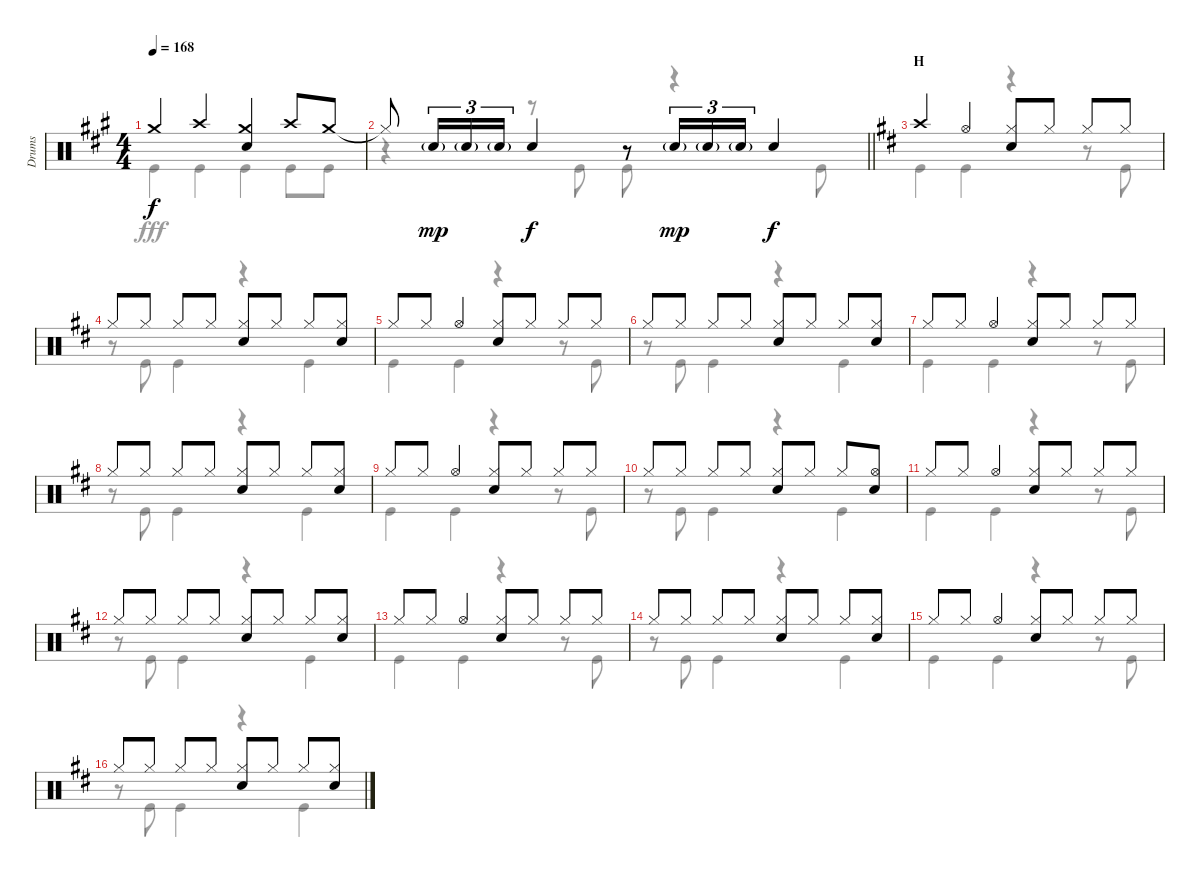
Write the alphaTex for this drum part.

\track ("Drums" "Drums") {instrument percussion}
\staff {score}
\articulation defaults
\voice
\ts (4 4)
\tempo 168
\clef neutral
\ks a "Crash medium (hit)".4{dy f} "Crash high (hit)".4
("Crash medium (hit)" "Snare (hit) 2").4 "Crash high (hit)".8 "Crash medium (hit)".8 |
\barLineRight lightlight "Hi-Hat (closed)"{t}.8 "Snare (hit) 2"{g}.16{tu (3 2) dy mp} "Snare (hit) 2"{g}.16{tu (3 2)} "Snare (hit) 2"{g}.16{tu (3 2)} "Snare (hit) 2".4{dy f}
r.8 "Snare (hit) 2"{g}.16{tu (3 2) dy mp} "Snare (hit) 2"{g}.16{tu (3 2)} "Snare (hit) 2"{g}.16{tu (3 2)} "Snare (hit) 2".4{dy f} |
\section ("" "H")
\ks d "Crash high (hit)".4 "Hi-Hat (open)".4
("Hi-Hat (closed)" "Snare (hit) 2").8 "Hi-Hat (closed)".8 "Hi-Hat (closed)".8 "Hi-Hat (closed)".8 |
"Hi-Hat (closed)".8 "Hi-Hat (closed)".8 "Hi-Hat (closed)".8 "Hi-Hat (closed)".8 ("Hi-Hat (closed)" "Snare (hit) 2").8 "Hi-Hat (closed)".8 "Hi-Hat (closed)".8 ("Hi-Hat (closed)" "Snare (hit) 2").8 |
"Hi-Hat (closed)".8 "Hi-Hat (closed)".8 "Hi-Hat (open)".4 ("Hi-Hat (closed)" "Snare (hit) 2").8 "Hi-Hat (closed)".8 "Hi-Hat (closed)".8 "Hi-Hat (closed)".8 |
"Hi-Hat (closed)".8 "Hi-Hat (closed)".8 "Hi-Hat (closed)".8 "Hi-Hat (closed)".8 ("Hi-Hat (closed)" "Snare (hit) 2").8 "Hi-Hat (closed)".8 "Hi-Hat (closed)".8 ("Hi-Hat (closed)" "Snare (hit) 2").8 |
"Hi-Hat (closed)".8 "Hi-Hat (closed)".8 "Hi-Hat (open)".4 ("Hi-Hat (closed)" "Snare (hit) 2").8 "Hi-Hat (closed)".8 "Hi-Hat (closed)".8 "Hi-Hat (closed)".8 |
"Hi-Hat (closed)".8 "Hi-Hat (closed)".8 "Hi-Hat (closed)".8 "Hi-Hat (closed)".8 ("Hi-Hat (closed)" "Snare (hit) 2").8 "Hi-Hat (closed)".8 "Hi-Hat (closed)".8 ("Hi-Hat (closed)" "Snare (hit) 2").8 |
"Hi-Hat (closed)".8 "Hi-Hat (closed)".8 "Hi-Hat (open)".4 ("Hi-Hat (closed)" "Snare (hit) 2").8 "Hi-Hat (closed)".8 "Hi-Hat (closed)".8 "Hi-Hat (closed)".8 |
"Hi-Hat (closed)".8 "Hi-Hat (closed)".8 "Hi-Hat (closed)".8 "Hi-Hat (closed)".8 ("Hi-Hat (closed)" "Snare (hit) 2").8 "Hi-Hat (closed)".8 "Hi-Hat (closed)".8 ("Hi-Hat (open)" "Snare (hit) 2").8 |
"Hi-Hat (closed)".8 "Hi-Hat (closed)".8 "Hi-Hat (open)".4 ("Hi-Hat (closed)" "Snare (hit) 2").8 "Hi-Hat (closed)".8 "Hi-Hat (closed)".8 "Hi-Hat (closed)".8 |
"Hi-Hat (closed)".8 "Hi-Hat (closed)".8 "Hi-Hat (closed)".8 "Hi-Hat (closed)".8 ("Hi-Hat (closed)" "Snare (hit) 2").8 "Hi-Hat (closed)".8 "Hi-Hat (closed)".8 ("Hi-Hat (closed)" "Snare (hit) 2").8 |
"Hi-Hat (closed)".8 "Hi-Hat (closed)".8 "Hi-Hat (open)".4 ("Hi-Hat (closed)" "Snare (hit) 2").8 "Hi-Hat (closed)".8 "Hi-Hat (closed)".8 "Hi-Hat (closed)".8 |
"Hi-Hat (closed)".8 "Hi-Hat (closed)".8 "Hi-Hat (closed)".8 "Hi-Hat (closed)".8 ("Hi-Hat (closed)" "Snare (hit) 2").8 "Hi-Hat (closed)".8 "Hi-Hat (closed)".8 ("Hi-Hat (closed)" "Snare (hit) 2").8 |
"Hi-Hat (closed)".8 "Hi-Hat (closed)".8 "Hi-Hat (open)".4 ("Hi-Hat (closed)" "Snare (hit) 2").8 "Hi-Hat (closed)".8 "Hi-Hat (closed)".8 "Hi-Hat (closed)".8 |
"Hi-Hat (closed)".8 "Hi-Hat (closed)".8 "Hi-Hat (closed)".8 "Hi-Hat (closed)".8 ("Hi-Hat (closed)" "Snare (hit) 2").8 "Hi-Hat (closed)".8 "Hi-Hat (closed)".8 ("Hi-Hat (closed)" "Snare (hit) 2").8
\voice
\clef neutral
\ottava regular
\simile none
\ks a "Kick (hit)".4{dy fff} "Kick (hit)".4 "Kick (hit)".4 "Kick (hit)".8 "Kick (hit)".8
|
\barLineRight lightlight
r.4 r.8 "Kick (hit)".8 "Kick (hit)".8 r.4 "Kick (hit)".8 |
\ks d "Kick (hit)".4 "Kick (hit)".4
r.4 r.8 "Kick (hit)".8 |
r.8 "Kick (hit)".8 "Kick (hit)".4 r.4 "Kick (hit)".4 |
"Kick (hit)".4 "Kick (hit)".4 r.4 r.8 "Kick (hit)".8 |
r.8 "Kick (hit)".8 "Kick (hit)".4 r.4 "Kick (hit)".4 |
"Kick (hit)".4 "Kick (hit)".4 r.4 r.8 "Kick (hit)".8 |
r.8 "Kick (hit)".8 "Kick (hit)".4 r.4 "Kick (hit)".4 |
"Kick (hit)".4 "Kick (hit)".4 r.4 r.8 "Kick (hit)".8 |
r.8 "Kick (hit)".8 "Kick (hit)".4 r.4 "Kick (hit)".4 |
"Kick (hit)".4 "Kick (hit)".4 r.4 r.8 "Kick (hit)".8 |
r.8 "Kick (hit)".8 "Kick (hit)".4 r.4 "Kick (hit)".4 |
"Kick (hit)".4 "Kick (hit)".4 r.4 r.8 "Kick (hit)".8 |
r.8 "Kick (hit)".8 "Kick (hit)".4 r.4 "Kick (hit)".4 |
"Kick (hit)".4 "Kick (hit)".4 r.4 r.8 "Kick (hit)".8 |
r.8 "Kick (hit)".8 "Kick (hit)".4 r.4 "Kick (hit)".4
